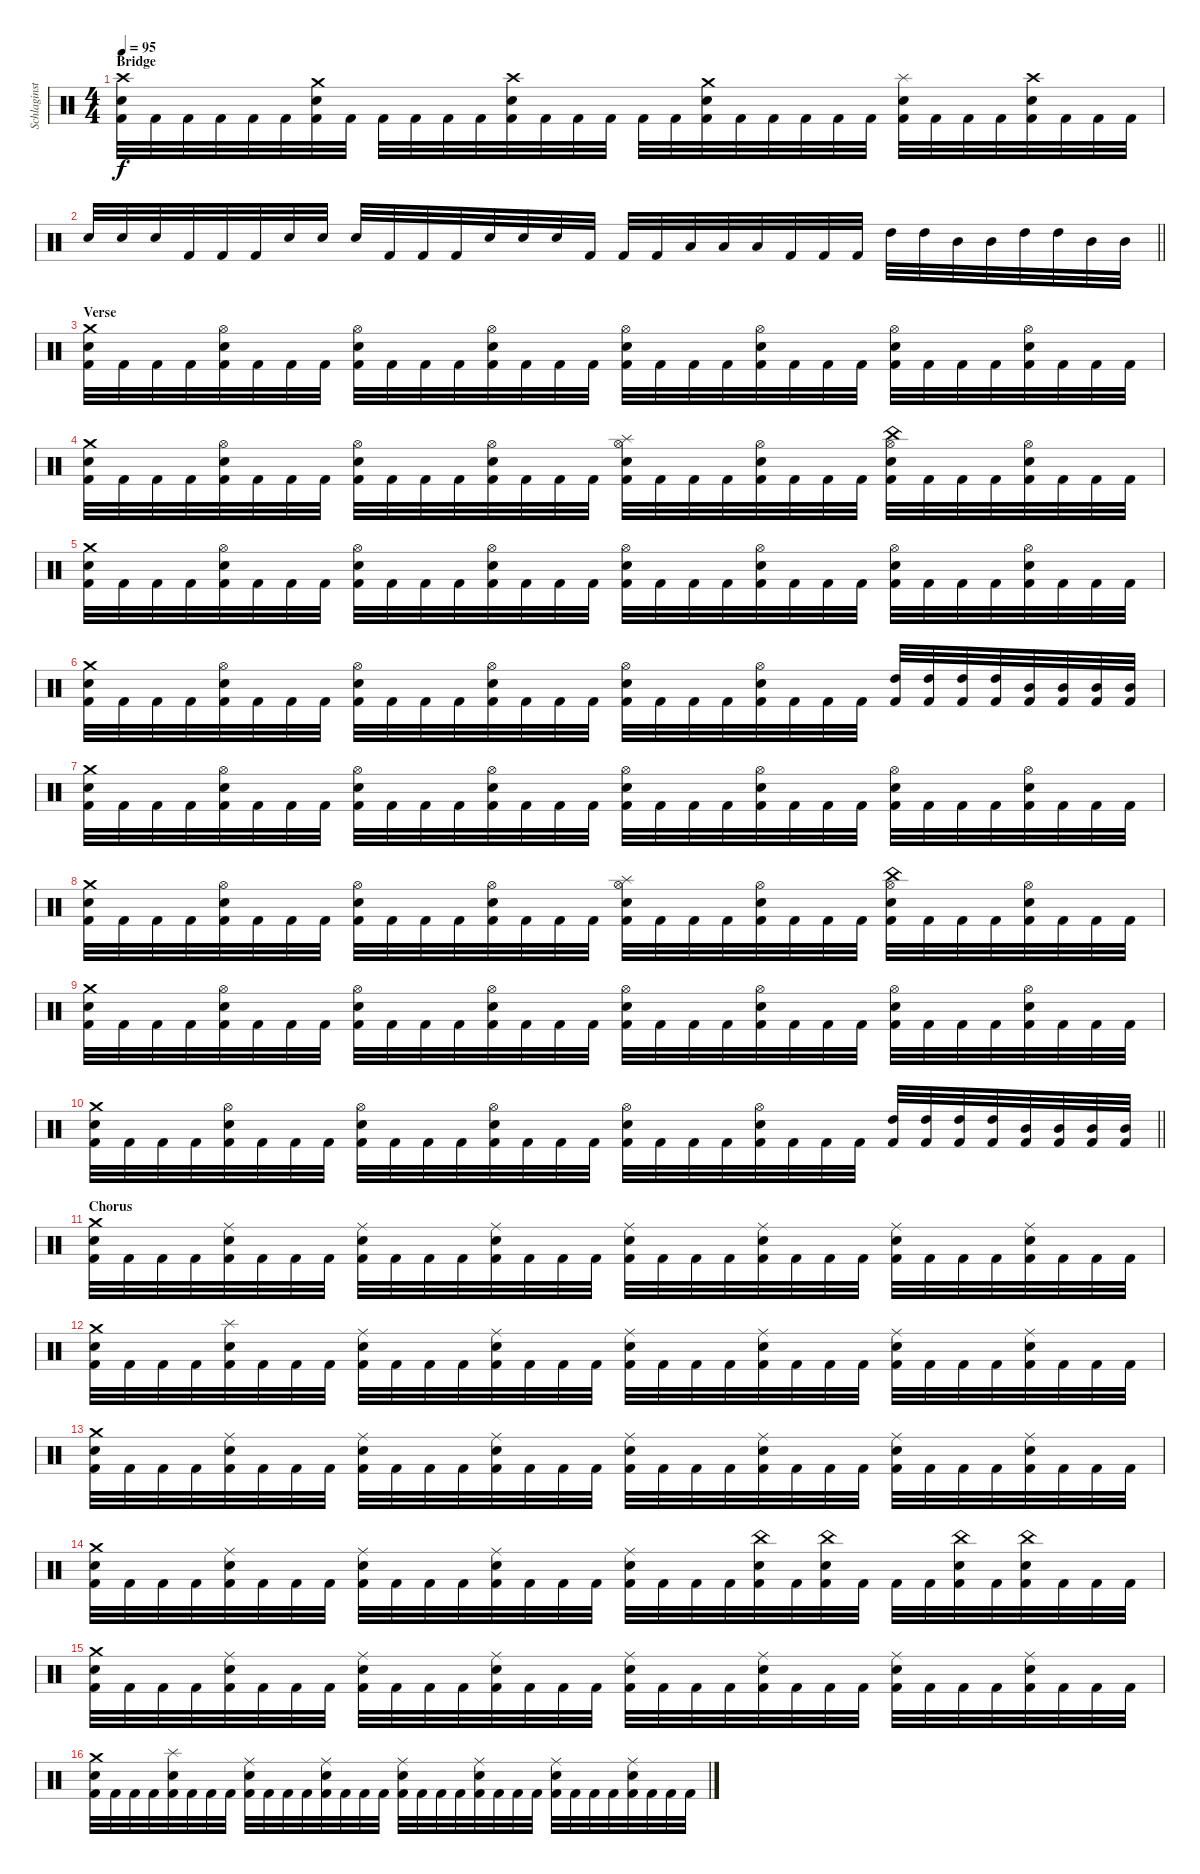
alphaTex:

\track ("Schlaginstrumente - Auswahl" "Schlaginst") {instrument percussion}
\staff {score}
\articulation defaults
\ts (4 4)
\section ("" "Bridge")
\tempo 95
\clef neutral
\ks c
("Crash high (hit)" "Snare (hit) 2" "Kick (hit) 2").32{dy f} "Kick (hit) 2".32 "Kick (hit) 2".32 "Kick (hit) 2".32 "Kick (hit) 2".32 "Kick (hit) 2".32 ("Crash medium (hit)" "Snare (hit) 2" "Kick (hit) 2").32 "Kick (hit) 2".32 "Kick (hit) 2".32 "Kick (hit) 2".32 "Kick (hit) 2".32 "Kick (hit) 2".32 ("Crash high (hit)" "Snare (hit) 2" "Kick (hit) 2").32 "Kick (hit) 2".32 "Kick (hit) 2".32 "Kick (hit) 2".32 "Kick (hit) 2".32 "Kick (hit) 2".32 ("Crash medium (hit)" "Snare (hit) 2" "Kick (hit) 2").32 "Kick (hit) 2".32 "Kick (hit) 2".32 "Kick (hit) 2".32 "Kick (hit) 2".32 "Kick (hit) 2".32 ("Splash (hit)" "Snare (hit) 2" "Kick (hit) 2").32 "Kick (hit) 2".32 "Kick (hit) 2".32 "Kick (hit) 2".32 ("Crash high (hit)" "Snare (hit) 2" "Kick (hit) 2").32 "Kick (hit) 2".32 "Kick (hit) 2".32 "Kick (hit) 2".32 |
\barLineRight lightlight "Snare (hit) 2".32 "Snare (hit) 2".32 "Snare (hit) 2".32 "Kick (hit) 2".32 "Kick (hit) 2".32 "Kick (hit) 2".32 "Snare (hit) 2".32 "Snare (hit) 2".32 "Snare (hit) 2".32 "Kick (hit) 2".32 "Kick (hit) 2".32 "Kick (hit) 2".32 "Snare (hit) 2".32 "Snare (hit) 2".32 "Snare (hit) 2".32 "Kick (hit) 2".32 "Kick (hit) 2".32 "Kick (hit) 2".32 "Low Tom (hit)".32 "Low Tom (hit)".32 "Low Tom (hit)".32 "Kick (hit) 2".32 "Kick (hit) 2".32 "Kick (hit) 2".32 "High Tom (hit)".32 "High Tom (hit)".32 "Mid Tom (hit)".32 "Mid Tom (hit)".32 "High Tom (hit)".32 "High Tom (hit)".32 "Mid Tom (hit)".32 "Mid Tom (hit)".32
|
\section ("" "Verse")
("Crash medium (hit)" "Snare (hit) 2" "Kick (hit) 2").32 "Kick (hit) 2".32 "Kick (hit) 2".32 "Kick (hit) 2".32 ("Snare (hit) 2" "Hi-Hat (open)" "Kick (hit) 2").32 "Kick (hit) 2".32 "Kick (hit) 2".32 "Kick (hit) 2".32 ("Snare (hit) 2" "Hi-Hat (open)" "Kick (hit) 2").32 "Kick (hit) 2".32 "Kick (hit) 2".32 "Kick (hit) 2".32 ("Snare (hit) 2" "Hi-Hat (open)" "Kick (hit) 2").32 "Kick (hit) 2".32 "Kick (hit) 2".32 "Kick (hit) 2".32 ("Snare (hit) 2" "Hi-Hat (open)" "Kick (hit) 2").32 "Kick (hit) 2".32 "Kick (hit) 2".32 "Kick (hit) 2".32 ("Snare (hit) 2" "Hi-Hat (open)" "Kick (hit) 2").32 "Kick (hit) 2".32 "Kick (hit) 2".32 "Kick (hit) 2".32 ("Snare (hit) 2" "Hi-Hat (open)" "Kick (hit) 2").32 "Kick (hit) 2".32 "Kick (hit) 2".32 "Kick (hit) 2".32 ("Snare (hit) 2" "Hi-Hat (open)" "Kick (hit) 2").32 "Kick (hit) 2".32 "Kick (hit) 2".32 "Kick (hit) 2".32 |
("Crash medium (hit)" "Snare (hit) 2" "Kick (hit) 2").32 "Kick (hit) 2".32 "Kick (hit) 2".32 "Kick (hit) 2".32 ("Snare (hit) 2" "Hi-Hat (open)" "Kick (hit) 2").32 "Kick (hit) 2".32 "Kick (hit) 2".32 "Kick (hit) 2".32 ("Snare (hit) 2" "Hi-Hat (open)" "Kick (hit) 2").32 "Kick (hit) 2".32 "Kick (hit) 2".32 "Kick (hit) 2".32 ("Snare (hit) 2" "Hi-Hat (open)" "Kick (hit) 2").32 "Kick (hit) 2".32 "Kick (hit) 2".32 "Kick (hit) 2".32 ("Splash (hit)" "Snare (hit) 2" "Hi-Hat (open)" "Kick (hit) 2").32 "Kick (hit) 2".32 "Kick (hit) 2".32 "Kick (hit) 2".32 ("Snare (hit) 2" "Hi-Hat (open)" "Kick (hit) 2").32 "Kick (hit) 2".32 "Kick (hit) 2".32 "Kick (hit) 2".32 ("China (hit)" "Snare (hit) 2" "Hi-Hat (open)" "Kick (hit) 2").32 "Kick (hit) 2".32 "Kick (hit) 2".32 "Kick (hit) 2".32 ("Snare (hit) 2" "Hi-Hat (open)" "Kick (hit) 2").32 "Kick (hit) 2".32 "Kick (hit) 2".32 "Kick (hit) 2".32 |
("Crash medium (hit)" "Snare (hit) 2" "Kick (hit) 2").32 "Kick (hit) 2".32 "Kick (hit) 2".32 "Kick (hit) 2".32 ("Snare (hit) 2" "Hi-Hat (open)" "Kick (hit) 2").32 "Kick (hit) 2".32 "Kick (hit) 2".32 "Kick (hit) 2".32 ("Snare (hit) 2" "Hi-Hat (open)" "Kick (hit) 2").32 "Kick (hit) 2".32 "Kick (hit) 2".32 "Kick (hit) 2".32 ("Snare (hit) 2" "Hi-Hat (open)" "Kick (hit) 2").32 "Kick (hit) 2".32 "Kick (hit) 2".32 "Kick (hit) 2".32 ("Snare (hit) 2" "Hi-Hat (open)" "Kick (hit) 2").32 "Kick (hit) 2".32 "Kick (hit) 2".32 "Kick (hit) 2".32 ("Snare (hit) 2" "Hi-Hat (open)" "Kick (hit) 2").32 "Kick (hit) 2".32 "Kick (hit) 2".32 "Kick (hit) 2".32 ("Snare (hit) 2" "Hi-Hat (open)" "Kick (hit) 2").32 "Kick (hit) 2".32 "Kick (hit) 2".32 "Kick (hit) 2".32 ("Snare (hit) 2" "Hi-Hat (open)" "Kick (hit) 2").32 "Kick (hit) 2".32 "Kick (hit) 2".32 "Kick (hit) 2".32 |
("Crash medium (hit)" "Snare (hit) 2" "Kick (hit) 2").32 "Kick (hit) 2".32 "Kick (hit) 2".32 "Kick (hit) 2".32 ("Snare (hit) 2" "Hi-Hat (open)" "Kick (hit) 2").32 "Kick (hit) 2".32 "Kick (hit) 2".32 "Kick (hit) 2".32 ("Snare (hit) 2" "Hi-Hat (open)" "Kick (hit) 2").32 "Kick (hit) 2".32 "Kick (hit) 2".32 "Kick (hit) 2".32 ("Snare (hit) 2" "Hi-Hat (open)" "Kick (hit) 2").32 "Kick (hit) 2".32 "Kick (hit) 2".32 "Kick (hit) 2".32 ("Snare (hit) 2" "Hi-Hat (open)" "Kick (hit) 2").32 "Kick (hit) 2".32 "Kick (hit) 2".32 "Kick (hit) 2".32 ("Snare (hit) 2" "Hi-Hat (open)" "Kick (hit) 2").32 "Kick (hit) 2".32 "Kick (hit) 2".32 "Kick (hit) 2".32 ("High Tom (hit)" "Kick (hit) 2").32 ("High Tom (hit)" "Kick (hit) 2").32 ("High Tom (hit)" "Kick (hit) 2").32 ("High Tom (hit)" "Kick (hit) 2").32 ("Mid Tom (hit)" "Kick (hit) 2").32 ("Mid Tom (hit)" "Kick (hit) 2").32 ("Mid Tom (hit)" "Kick (hit) 2").32 ("Mid Tom (hit)" "Kick (hit) 2").32 |
("Crash medium (hit)" "Snare (hit) 2" "Kick (hit) 2").32 "Kick (hit) 2".32 "Kick (hit) 2".32 "Kick (hit) 2".32 ("Snare (hit) 2" "Hi-Hat (open)" "Kick (hit) 2").32 "Kick (hit) 2".32 "Kick (hit) 2".32 "Kick (hit) 2".32 ("Snare (hit) 2" "Hi-Hat (open)" "Kick (hit) 2").32 "Kick (hit) 2".32 "Kick (hit) 2".32 "Kick (hit) 2".32 ("Snare (hit) 2" "Hi-Hat (open)" "Kick (hit) 2").32 "Kick (hit) 2".32 "Kick (hit) 2".32 "Kick (hit) 2".32 ("Snare (hit) 2" "Hi-Hat (open)" "Kick (hit) 2").32 "Kick (hit) 2".32 "Kick (hit) 2".32 "Kick (hit) 2".32 ("Snare (hit) 2" "Hi-Hat (open)" "Kick (hit) 2").32 "Kick (hit) 2".32 "Kick (hit) 2".32 "Kick (hit) 2".32 ("Snare (hit) 2" "Hi-Hat (open)" "Kick (hit) 2").32 "Kick (hit) 2".32 "Kick (hit) 2".32 "Kick (hit) 2".32 ("Snare (hit) 2" "Hi-Hat (open)" "Kick (hit) 2").32 "Kick (hit) 2".32 "Kick (hit) 2".32 "Kick (hit) 2".32 |
("Crash medium (hit)" "Snare (hit) 2" "Kick (hit) 2").32 "Kick (hit) 2".32 "Kick (hit) 2".32 "Kick (hit) 2".32 ("Snare (hit) 2" "Hi-Hat (open)" "Kick (hit) 2").32 "Kick (hit) 2".32 "Kick (hit) 2".32 "Kick (hit) 2".32 ("Snare (hit) 2" "Hi-Hat (open)" "Kick (hit) 2").32 "Kick (hit) 2".32 "Kick (hit) 2".32 "Kick (hit) 2".32 ("Snare (hit) 2" "Hi-Hat (open)" "Kick (hit) 2").32 "Kick (hit) 2".32 "Kick (hit) 2".32 "Kick (hit) 2".32 ("Splash (hit)" "Snare (hit) 2" "Hi-Hat (open)" "Kick (hit) 2").32 "Kick (hit) 2".32 "Kick (hit) 2".32 "Kick (hit) 2".32 ("Snare (hit) 2" "Hi-Hat (open)" "Kick (hit) 2").32 "Kick (hit) 2".32 "Kick (hit) 2".32 "Kick (hit) 2".32 ("China (hit)" "Snare (hit) 2" "Hi-Hat (open)" "Kick (hit) 2").32 "Kick (hit) 2".32 "Kick (hit) 2".32 "Kick (hit) 2".32 ("Snare (hit) 2" "Hi-Hat (open)" "Kick (hit) 2").32 "Kick (hit) 2".32 "Kick (hit) 2".32 "Kick (hit) 2".32 |
("Crash medium (hit)" "Snare (hit) 2" "Kick (hit) 2").32 "Kick (hit) 2".32 "Kick (hit) 2".32 "Kick (hit) 2".32 ("Snare (hit) 2" "Hi-Hat (open)" "Kick (hit) 2").32 "Kick (hit) 2".32 "Kick (hit) 2".32 "Kick (hit) 2".32 ("Snare (hit) 2" "Hi-Hat (open)" "Kick (hit) 2").32 "Kick (hit) 2".32 "Kick (hit) 2".32 "Kick (hit) 2".32 ("Snare (hit) 2" "Hi-Hat (open)" "Kick (hit) 2").32 "Kick (hit) 2".32 "Kick (hit) 2".32 "Kick (hit) 2".32 ("Snare (hit) 2" "Hi-Hat (open)" "Kick (hit) 2").32 "Kick (hit) 2".32 "Kick (hit) 2".32 "Kick (hit) 2".32 ("Snare (hit) 2" "Hi-Hat (open)" "Kick (hit) 2").32 "Kick (hit) 2".32 "Kick (hit) 2".32 "Kick (hit) 2".32 ("Snare (hit) 2" "Hi-Hat (open)" "Kick (hit) 2").32 "Kick (hit) 2".32 "Kick (hit) 2".32 "Kick (hit) 2".32 ("Snare (hit) 2" "Hi-Hat (open)" "Kick (hit) 2").32 "Kick (hit) 2".32 "Kick (hit) 2".32 "Kick (hit) 2".32 |
\barLineRight lightlight
("Crash medium (hit)" "Snare (hit) 2" "Kick (hit) 2").32 "Kick (hit) 2".32 "Kick (hit) 2".32 "Kick (hit) 2".32 ("Snare (hit) 2" "Hi-Hat (open)" "Kick (hit) 2").32 "Kick (hit) 2".32 "Kick (hit) 2".32 "Kick (hit) 2".32 ("Snare (hit) 2" "Hi-Hat (open)" "Kick (hit) 2").32 "Kick (hit) 2".32 "Kick (hit) 2".32 "Kick (hit) 2".32 ("Snare (hit) 2" "Hi-Hat (open)" "Kick (hit) 2").32 "Kick (hit) 2".32 "Kick (hit) 2".32 "Kick (hit) 2".32 ("Snare (hit) 2" "Hi-Hat (open)" "Kick (hit) 2").32 "Kick (hit) 2".32 "Kick (hit) 2".32 "Kick (hit) 2".32 ("Snare (hit) 2" "Hi-Hat (open)" "Kick (hit) 2").32 "Kick (hit) 2".32 "Kick (hit) 2".32 "Kick (hit) 2".32 ("High Tom (hit)" "Kick (hit) 2").32 ("High Tom (hit)" "Kick (hit) 2").32 ("High Tom (hit)" "Kick (hit) 2").32 ("High Tom (hit)" "Kick (hit) 2").32 ("Mid Tom (hit)" "Kick (hit) 2").32 ("Mid Tom (hit)" "Kick (hit) 2").32 ("Mid Tom (hit)" "Kick (hit) 2").32 ("Mid Tom (hit)" "Kick (hit) 2").32 |
\section ("" "Chorus")
("Crash medium (hit)" "Snare (hit) 2" "Kick (hit) 2").32 "Kick (hit) 2".32 "Kick (hit) 2".32 "Kick (hit) 2".32 ("Snare (hit) 2" "Ride (middle)" "Kick (hit) 2").32 "Kick (hit) 2".32 "Kick (hit) 2".32 "Kick (hit) 2".32 ("Snare (hit) 2" "Ride (middle)" "Kick (hit) 2").32 "Kick (hit) 2".32 "Kick (hit) 2".32 "Kick (hit) 2".32 ("Snare (hit) 2" "Ride (middle)" "Kick (hit) 2").32 "Kick (hit) 2".32 "Kick (hit) 2".32 "Kick (hit) 2".32 ("Snare (hit) 2" "Ride (middle)" "Kick (hit) 2").32 "Kick (hit) 2".32 "Kick (hit) 2".32 "Kick (hit) 2".32 ("Snare (hit) 2" "Ride (middle)" "Kick (hit) 2").32 "Kick (hit) 2".32 "Kick (hit) 2".32 "Kick (hit) 2".32 ("Snare (hit) 2" "Ride (middle)" "Kick (hit) 2").32 "Kick (hit) 2".32 "Kick (hit) 2".32 "Kick (hit) 2".32 ("Snare (hit) 2" "Ride (middle)" "Kick (hit) 2").32 "Kick (hit) 2".32 "Kick (hit) 2".32 "Kick (hit) 2".32 |
("Crash medium (hit)" "Snare (hit) 2" "Kick (hit) 2").32 "Kick (hit) 2".32 "Kick (hit) 2".32 "Kick (hit) 2".32 ("Snare (hit) 2" "Splash (hit)" "Kick (hit) 2").32 "Kick (hit) 2".32 "Kick (hit) 2".32 "Kick (hit) 2".32 ("Snare (hit) 2" "Ride (middle)" "Kick (hit) 2").32 "Kick (hit) 2".32 "Kick (hit) 2".32 "Kick (hit) 2".32 ("Snare (hit) 2" "Ride (middle)" "Kick (hit) 2").32 "Kick (hit) 2".32 "Kick (hit) 2".32 "Kick (hit) 2".32 ("Snare (hit) 2" "Ride (middle)" "Kick (hit) 2").32 "Kick (hit) 2".32 "Kick (hit) 2".32 "Kick (hit) 2".32 ("Snare (hit) 2" "Ride (middle)" "Kick (hit) 2").32 "Kick (hit) 2".32 "Kick (hit) 2".32 "Kick (hit) 2".32 ("Snare (hit) 2" "Ride (middle)" "Kick (hit) 2").32 "Kick (hit) 2".32 "Kick (hit) 2".32 "Kick (hit) 2".32 ("Snare (hit) 2" "Ride (middle)" "Kick (hit) 2").32 "Kick (hit) 2".32 "Kick (hit) 2".32 "Kick (hit) 2".32 |
("Crash medium (hit)" "Snare (hit) 2" "Kick (hit) 2").32 "Kick (hit) 2".32 "Kick (hit) 2".32 "Kick (hit) 2".32 ("Snare (hit) 2" "Ride (middle)" "Kick (hit) 2").32 "Kick (hit) 2".32 "Kick (hit) 2".32 "Kick (hit) 2".32 ("Snare (hit) 2" "Ride (middle)" "Kick (hit) 2").32 "Kick (hit) 2".32 "Kick (hit) 2".32 "Kick (hit) 2".32 ("Snare (hit) 2" "Ride (middle)" "Kick (hit) 2").32 "Kick (hit) 2".32 "Kick (hit) 2".32 "Kick (hit) 2".32 ("Snare (hit) 2" "Ride (middle)" "Kick (hit) 2").32 "Kick (hit) 2".32 "Kick (hit) 2".32 "Kick (hit) 2".32 ("Snare (hit) 2" "Ride (middle)" "Kick (hit) 2").32 "Kick (hit) 2".32 "Kick (hit) 2".32 "Kick (hit) 2".32 ("Snare (hit) 2" "Ride (middle)" "Kick (hit) 2").32 "Kick (hit) 2".32 "Kick (hit) 2".32 "Kick (hit) 2".32 ("Snare (hit) 2" "Ride (middle)" "Kick (hit) 2").32 "Kick (hit) 2".32 "Kick (hit) 2".32 "Kick (hit) 2".32 |
("Crash medium (hit)" "Snare (hit) 2" "Kick (hit) 2").32 "Kick (hit) 2".32 "Kick (hit) 2".32 "Kick (hit) 2".32 ("Snare (hit) 2" "Ride (middle)" "Kick (hit) 2").32 "Kick (hit) 2".32 "Kick (hit) 2".32 "Kick (hit) 2".32 ("Snare (hit) 2" "Ride (middle)" "Kick (hit) 2").32 "Kick (hit) 2".32 "Kick (hit) 2".32 "Kick (hit) 2".32 ("Snare (hit) 2" "Ride (middle)" "Kick (hit) 2").32 "Kick (hit) 2".32 "Kick (hit) 2".32 "Kick (hit) 2".32 ("Snare (hit) 2" "Ride (middle)" "Kick (hit) 2").32 "Kick (hit) 2".32 "Kick (hit) 2".32 "Kick (hit) 2".32 ("China (hit)" "Snare (hit) 2" "Kick (hit) 2").32 "Kick (hit) 2".32 ("China (hit)" "Snare (hit) 2" "Kick (hit) 2").32 "Kick (hit) 2".32 "Kick (hit) 2".32 "Kick (hit) 2".32 ("China (hit)" "Snare (hit) 2" "Kick (hit) 2").32 "Kick (hit) 2".32 ("China (hit)" "Snare (hit) 2" "Kick (hit) 2").32 "Kick (hit) 2".32 "Kick (hit) 2".32 "Kick (hit) 2".32 |
("Crash medium (hit)" "Snare (hit) 2" "Kick (hit) 2").32 "Kick (hit) 2".32 "Kick (hit) 2".32 "Kick (hit) 2".32 ("Snare (hit) 2" "Ride (middle)" "Kick (hit) 2").32 "Kick (hit) 2".32 "Kick (hit) 2".32 "Kick (hit) 2".32 ("Snare (hit) 2" "Ride (middle)" "Kick (hit) 2").32 "Kick (hit) 2".32 "Kick (hit) 2".32 "Kick (hit) 2".32 ("Snare (hit) 2" "Ride (middle)" "Kick (hit) 2").32 "Kick (hit) 2".32 "Kick (hit) 2".32 "Kick (hit) 2".32 ("Snare (hit) 2" "Ride (middle)" "Kick (hit) 2").32 "Kick (hit) 2".32 "Kick (hit) 2".32 "Kick (hit) 2".32 ("Snare (hit) 2" "Ride (middle)" "Kick (hit) 2").32 "Kick (hit) 2".32 "Kick (hit) 2".32 "Kick (hit) 2".32 ("Snare (hit) 2" "Ride (middle)" "Kick (hit) 2").32 "Kick (hit) 2".32 "Kick (hit) 2".32 "Kick (hit) 2".32 ("Snare (hit) 2" "Ride (middle)" "Kick (hit) 2").32 "Kick (hit) 2".32 "Kick (hit) 2".32 "Kick (hit) 2".32 |
("Crash medium (hit)" "Snare (hit) 2" "Kick (hit) 2").32 "Kick (hit) 2".32 "Kick (hit) 2".32 "Kick (hit) 2".32 ("Snare (hit) 2" "Splash (hit)" "Kick (hit) 2").32 "Kick (hit) 2".32 "Kick (hit) 2".32 "Kick (hit) 2".32 ("Snare (hit) 2" "Ride (middle)" "Kick (hit) 2").32 "Kick (hit) 2".32 "Kick (hit) 2".32 "Kick (hit) 2".32 ("Snare (hit) 2" "Ride (middle)" "Kick (hit) 2").32 "Kick (hit) 2".32 "Kick (hit) 2".32 "Kick (hit) 2".32 ("Snare (hit) 2" "Ride (middle)" "Kick (hit) 2").32 "Kick (hit) 2".32 "Kick (hit) 2".32 "Kick (hit) 2".32 ("Snare (hit) 2" "Ride (middle)" "Kick (hit) 2").32 "Kick (hit) 2".32 "Kick (hit) 2".32 "Kick (hit) 2".32 ("Snare (hit) 2" "Ride (middle)" "Kick (hit) 2").32 "Kick (hit) 2".32 "Kick (hit) 2".32 "Kick (hit) 2".32 ("Snare (hit) 2" "Ride (middle)" "Kick (hit) 2").32 "Kick (hit) 2".32 "Kick (hit) 2".32 "Kick (hit) 2".32
